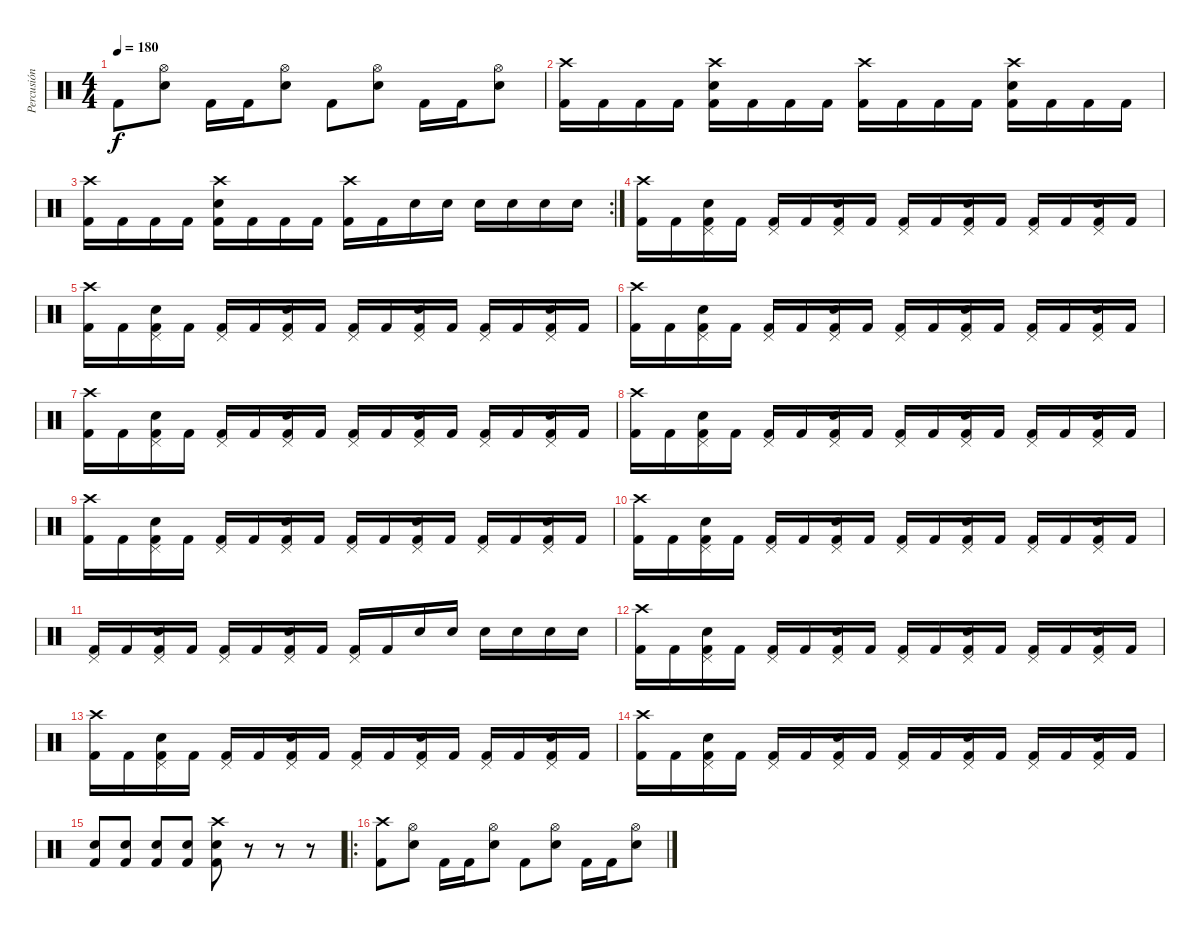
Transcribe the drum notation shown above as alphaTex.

\track ("Percusión" "Percusión") {instrument percussion}
\staff {score}
\articulation defaults
\ts (4 4)
\tempo 180
\clef neutral
\ks c "Kick (hit) 2".8{dy f}
("Hi-Hat (open)" "Electric Snare (hit)").8 "Kick (hit) 2".16 "Kick (hit) 2".16 ("Hi-Hat (open)" "Electric Snare (hit)").8 "Kick (hit) 2".8 ("Hi-Hat (open)" "Electric Snare (hit)").8 "Kick (hit) 2".16 "Kick (hit) 2".16 ("Hi-Hat (open)" "Electric Snare (hit)").8 |
("Crash high (hit)" "Kick (hit) 2").16 "Kick (hit) 2".16 "Kick (hit) 2".16 "Kick (hit) 2".16 ("Crash high (hit)" "Kick (hit) 2" "Electric Snare (hit)").16 "Kick (hit) 2".16 "Kick (hit) 2".16 "Kick (hit) 2".16 ("Crash high (hit)" "Kick (hit) 2").16 "Kick (hit) 2".16 "Kick (hit) 2".16 "Kick (hit) 2".16 ("Crash high (hit)" "Kick (hit) 2" "Electric Snare (hit)").16 "Kick (hit) 2".16 "Kick (hit) 2".16 "Kick (hit) 2".16 |
\rc 2
("Crash high (hit)" "Kick (hit) 2").16 "Kick (hit) 2".16 "Kick (hit) 2".16 "Kick (hit) 2".16 ("Crash high (hit)" "Kick (hit) 2" "Electric Snare (hit)").16 "Kick (hit) 2".16 "Kick (hit) 2".16 "Kick (hit) 2".16 ("Crash high (hit)" "Kick (hit) 2").16 "Kick (hit) 2".16 "Electric Snare (hit)".16 "Electric Snare (hit)".16 "Electric Snare (hit)".16 "Electric Snare (hit)".16 "Electric Snare (hit)".16 "Electric Snare (hit)".16 |
("Crash high (hit)" "Kick (hit) 2").16 "Kick (hit) 2".16 ("Pedal Hi-Hat (hit)" "Kick (hit) 2" "Electric Snare (hit)").16 "Kick (hit) 2".16 ("Pedal Hi-Hat (hit)" "Kick (hit) 2").16 "Kick (hit) 2".16 ("Pedal Hi-Hat (hit)" "Kick (hit) 2" "Electric Snare (hit)").16 "Kick (hit) 2".16 ("Pedal Hi-Hat (hit)" "Kick (hit) 2").16 "Kick (hit) 2".16 ("Pedal Hi-Hat (hit)" "Kick (hit) 2" "Electric Snare (hit)").16 "Kick (hit) 2".16 ("Pedal Hi-Hat (hit)" "Kick (hit) 2").16 "Kick (hit) 2".16 ("Pedal Hi-Hat (hit)" "Kick (hit) 2" "Electric Snare (hit)").16 "Kick (hit) 2".16 |
("Crash high (hit)" "Kick (hit) 2").16 "Kick (hit) 2".16 ("Pedal Hi-Hat (hit)" "Kick (hit) 2" "Electric Snare (hit)").16 "Kick (hit) 2".16 ("Pedal Hi-Hat (hit)" "Kick (hit) 2").16 "Kick (hit) 2".16 ("Pedal Hi-Hat (hit)" "Kick (hit) 2" "Electric Snare (hit)").16 "Kick (hit) 2".16 ("Pedal Hi-Hat (hit)" "Kick (hit) 2").16 "Kick (hit) 2".16 ("Pedal Hi-Hat (hit)" "Kick (hit) 2" "Electric Snare (hit)").16 "Kick (hit) 2".16 ("Pedal Hi-Hat (hit)" "Kick (hit) 2").16 "Kick (hit) 2".16 ("Pedal Hi-Hat (hit)" "Kick (hit) 2" "Electric Snare (hit)").16 "Kick (hit) 2".16 |
("Crash high (hit)" "Kick (hit) 2").16 "Kick (hit) 2".16 ("Pedal Hi-Hat (hit)" "Kick (hit) 2" "Electric Snare (hit)").16 "Kick (hit) 2".16 ("Pedal Hi-Hat (hit)" "Kick (hit) 2").16 "Kick (hit) 2".16 ("Pedal Hi-Hat (hit)" "Kick (hit) 2" "Electric Snare (hit)").16 "Kick (hit) 2".16 ("Pedal Hi-Hat (hit)" "Kick (hit) 2").16 "Kick (hit) 2".16 ("Pedal Hi-Hat (hit)" "Kick (hit) 2" "Electric Snare (hit)").16 "Kick (hit) 2".16 ("Pedal Hi-Hat (hit)" "Kick (hit) 2").16 "Kick (hit) 2".16 ("Pedal Hi-Hat (hit)" "Kick (hit) 2" "Electric Snare (hit)").16 "Kick (hit) 2".16 |
("Crash high (hit)" "Kick (hit) 2").16 "Kick (hit) 2".16 ("Pedal Hi-Hat (hit)" "Kick (hit) 2" "Electric Snare (hit)").16 "Kick (hit) 2".16 ("Pedal Hi-Hat (hit)" "Kick (hit) 2").16 "Kick (hit) 2".16 ("Pedal Hi-Hat (hit)" "Kick (hit) 2" "Electric Snare (hit)").16 "Kick (hit) 2".16 ("Pedal Hi-Hat (hit)" "Kick (hit) 2").16 "Kick (hit) 2".16 ("Pedal Hi-Hat (hit)" "Kick (hit) 2" "Electric Snare (hit)").16 "Kick (hit) 2".16 ("Pedal Hi-Hat (hit)" "Kick (hit) 2").16 "Kick (hit) 2".16 ("Pedal Hi-Hat (hit)" "Kick (hit) 2" "Electric Snare (hit)").16 "Kick (hit) 2".16 |
("Crash high (hit)" "Kick (hit) 2").16 "Kick (hit) 2".16 ("Pedal Hi-Hat (hit)" "Kick (hit) 2" "Electric Snare (hit)").16 "Kick (hit) 2".16 ("Pedal Hi-Hat (hit)" "Kick (hit) 2").16 "Kick (hit) 2".16 ("Pedal Hi-Hat (hit)" "Kick (hit) 2" "Electric Snare (hit)").16 "Kick (hit) 2".16 ("Pedal Hi-Hat (hit)" "Kick (hit) 2").16 "Kick (hit) 2".16 ("Pedal Hi-Hat (hit)" "Kick (hit) 2" "Electric Snare (hit)").16 "Kick (hit) 2".16 ("Pedal Hi-Hat (hit)" "Kick (hit) 2").16 "Kick (hit) 2".16 ("Pedal Hi-Hat (hit)" "Kick (hit) 2" "Electric Snare (hit)").16 "Kick (hit) 2".16 |
("Crash high (hit)" "Kick (hit) 2").16 "Kick (hit) 2".16 ("Pedal Hi-Hat (hit)" "Kick (hit) 2" "Electric Snare (hit)").16 "Kick (hit) 2".16 ("Pedal Hi-Hat (hit)" "Kick (hit) 2").16 "Kick (hit) 2".16 ("Pedal Hi-Hat (hit)" "Kick (hit) 2" "Electric Snare (hit)").16 "Kick (hit) 2".16 ("Pedal Hi-Hat (hit)" "Kick (hit) 2").16 "Kick (hit) 2".16 ("Pedal Hi-Hat (hit)" "Kick (hit) 2" "Electric Snare (hit)").16 "Kick (hit) 2".16 ("Pedal Hi-Hat (hit)" "Kick (hit) 2").16 "Kick (hit) 2".16 ("Pedal Hi-Hat (hit)" "Kick (hit) 2" "Electric Snare (hit)").16 "Kick (hit) 2".16 |
("Crash high (hit)" "Kick (hit) 2").16 "Kick (hit) 2".16 ("Pedal Hi-Hat (hit)" "Kick (hit) 2" "Electric Snare (hit)").16 "Kick (hit) 2".16 ("Pedal Hi-Hat (hit)" "Kick (hit) 2").16 "Kick (hit) 2".16 ("Pedal Hi-Hat (hit)" "Kick (hit) 2" "Electric Snare (hit)").16 "Kick (hit) 2".16 ("Pedal Hi-Hat (hit)" "Kick (hit) 2").16 "Kick (hit) 2".16 ("Pedal Hi-Hat (hit)" "Kick (hit) 2" "Electric Snare (hit)").16 "Kick (hit) 2".16 ("Pedal Hi-Hat (hit)" "Kick (hit) 2").16 "Kick (hit) 2".16 ("Pedal Hi-Hat (hit)" "Kick (hit) 2" "Electric Snare (hit)").16 "Kick (hit) 2".16 |
("Pedal Hi-Hat (hit)" "Kick (hit) 2").16 "Kick (hit) 2".16 ("Pedal Hi-Hat (hit)" "Kick (hit) 2" "Electric Snare (hit)").16 "Kick (hit) 2".16 ("Pedal Hi-Hat (hit)" "Kick (hit) 2").16 "Kick (hit) 2".16 ("Pedal Hi-Hat (hit)" "Kick (hit) 2" "Electric Snare (hit)").16 "Kick (hit) 2".16 ("Pedal Hi-Hat (hit)" "Kick (hit) 2").16 "Kick (hit) 2".16 "Electric Snare (hit)".16 "Electric Snare (hit)".16 "Electric Snare (hit)".16 "Electric Snare (hit)".16 "Electric Snare (hit)".16 "Electric Snare (hit)".16 |
("Crash high (hit)" "Kick (hit) 2").16 "Kick (hit) 2".16 ("Pedal Hi-Hat (hit)" "Kick (hit) 2" "Electric Snare (hit)").16 "Kick (hit) 2".16 ("Pedal Hi-Hat (hit)" "Kick (hit) 2").16 "Kick (hit) 2".16 ("Pedal Hi-Hat (hit)" "Kick (hit) 2" "Electric Snare (hit)").16 "Kick (hit) 2".16 ("Pedal Hi-Hat (hit)" "Kick (hit) 2").16 "Kick (hit) 2".16 ("Pedal Hi-Hat (hit)" "Kick (hit) 2" "Electric Snare (hit)").16 "Kick (hit) 2".16 ("Pedal Hi-Hat (hit)" "Kick (hit) 2").16 "Kick (hit) 2".16 ("Pedal Hi-Hat (hit)" "Kick (hit) 2" "Electric Snare (hit)").16 "Kick (hit) 2".16 |
("Crash high (hit)" "Kick (hit) 2").16 "Kick (hit) 2".16 ("Pedal Hi-Hat (hit)" "Kick (hit) 2" "Electric Snare (hit)").16 "Kick (hit) 2".16 ("Pedal Hi-Hat (hit)" "Kick (hit) 2").16 "Kick (hit) 2".16 ("Pedal Hi-Hat (hit)" "Kick (hit) 2" "Electric Snare (hit)").16 "Kick (hit) 2".16 ("Pedal Hi-Hat (hit)" "Kick (hit) 2").16 "Kick (hit) 2".16 ("Pedal Hi-Hat (hit)" "Kick (hit) 2" "Electric Snare (hit)").16 "Kick (hit) 2".16 ("Pedal Hi-Hat (hit)" "Kick (hit) 2").16 "Kick (hit) 2".16 ("Pedal Hi-Hat (hit)" "Kick (hit) 2" "Electric Snare (hit)").16 "Kick (hit) 2".16 |
("Crash high (hit)" "Kick (hit) 2").16 "Kick (hit) 2".16 ("Pedal Hi-Hat (hit)" "Kick (hit) 2" "Electric Snare (hit)").16 "Kick (hit) 2".16 ("Pedal Hi-Hat (hit)" "Kick (hit) 2").16 "Kick (hit) 2".16 ("Pedal Hi-Hat (hit)" "Kick (hit) 2" "Electric Snare (hit)").16 "Kick (hit) 2".16 ("Pedal Hi-Hat (hit)" "Kick (hit) 2").16 "Kick (hit) 2".16 ("Pedal Hi-Hat (hit)" "Kick (hit) 2" "Electric Snare (hit)").16 "Kick (hit) 2".16 ("Pedal Hi-Hat (hit)" "Kick (hit) 2").16 "Kick (hit) 2".16 ("Pedal Hi-Hat (hit)" "Kick (hit) 2" "Electric Snare (hit)").16 "Kick (hit) 2".16 |
("Kick (hit) 2" "Electric Snare (hit)").8 ("Kick (hit) 2" "Electric Snare (hit)").8 ("Kick (hit) 2" "Electric Snare (hit)").8 ("Kick (hit) 2" "Electric Snare (hit)").8 ("Crash high (hit)" "Kick (hit) 2" "Electric Snare (hit)").8 r.8 r.8 r.8 |
\ro
("Crash high (hit)" "Kick (hit) 2").8 ("Hi-Hat (open)" "Electric Snare (hit)").8 "Kick (hit) 2".16 "Kick (hit) 2".16 ("Hi-Hat (open)" "Electric Snare (hit)").8 "Kick (hit) 2".8 ("Hi-Hat (open)" "Electric Snare (hit)").8 "Kick (hit) 2".16 "Kick (hit) 2".16 ("Hi-Hat (open)" "Electric Snare (hit)").8
